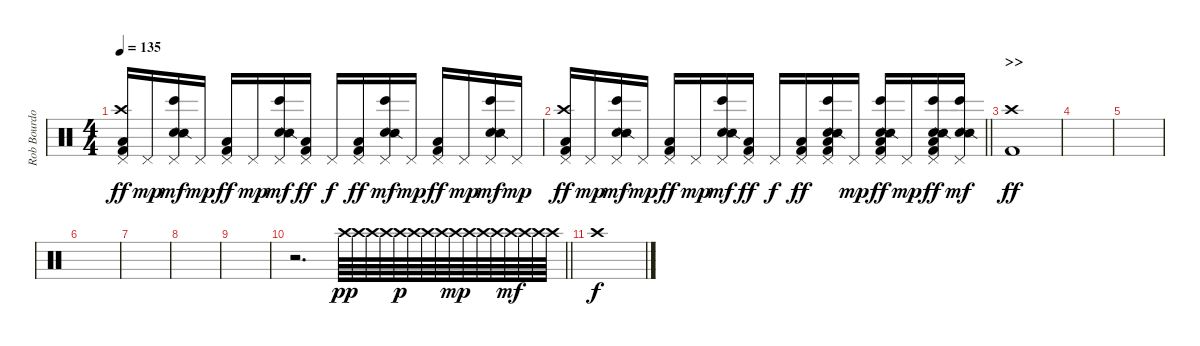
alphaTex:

\track ("Rob Bourdon - Beats & Drums" "Rob Bourdo") {instrument percussion}
\staff {score}
\articulation defaults
\ts (4 4)
\tempo 135
\clef neutral
\ks c
("Low Floor Tom (hit)" "Crash high (hit)" "Pedal Hi-Hat (hit)" "Kick (hit) 2").16{dy ff} "Pedal Hi-Hat (hit)".16{dy mp} ("Bongo High (hit)" "Electric Snare (hit)" "Snare (side stick) 2" "Pedal Hi-Hat (hit)").16{dy mf} "Pedal Hi-Hat (hit)".16{dy mp} ("Low Floor Tom (hit)" "Pedal Hi-Hat (hit)" "Kick (hit) 2").16{dy ff} "Pedal Hi-Hat (hit)".16{dy mp} ("Bongo High (hit)" "Electric Snare (hit)" "Snare (side stick) 2" "Pedal Hi-Hat (hit)").16{dy mf} ("Low Floor Tom (hit)" "Pedal Hi-Hat (hit)" "Kick (hit) 2").16{dy ff} "Pedal Hi-Hat (hit)".16{dy f} ("Low Floor Tom (hit)" "Pedal Hi-Hat (hit)" "Kick (hit) 2").16{dy ff} ("Bongo High (hit)" "Electric Snare (hit)" "Snare (side stick) 2" "Pedal Hi-Hat (hit)").16{dy mf} "Pedal Hi-Hat (hit)".16{dy mp} ("Low Floor Tom (hit)" "Pedal Hi-Hat (hit)" "Kick (hit) 2").16{dy ff} "Pedal Hi-Hat (hit)".16{dy mp} ("Bongo High (hit)" "Electric Snare (hit)" "Snare (side stick) 2" "Pedal Hi-Hat (hit)").16{dy mf} "Pedal Hi-Hat (hit)".16{dy mp} |
\barLineRight lightlight
("Low Floor Tom (hit)" "Crash high (hit)" "Pedal Hi-Hat (hit)" "Kick (hit) 2").16{dy ff} "Pedal Hi-Hat (hit)".16{dy mp} ("Bongo High (hit)" "Electric Snare (hit)" "Snare (side stick) 2" "Pedal Hi-Hat (hit)").16{dy mf} "Pedal Hi-Hat (hit)".16{dy mp} ("Low Floor Tom (hit)" "Pedal Hi-Hat (hit)" "Kick (hit) 2").16{dy ff} "Pedal Hi-Hat (hit)".16{dy mp} ("Bongo High (hit)" "Electric Snare (hit)" "Snare (side stick) 2" "Pedal Hi-Hat (hit)").16{dy mf} ("Low Floor Tom (hit)" "Pedal Hi-Hat (hit)" "Kick (hit) 2").16{dy ff} "Pedal Hi-Hat (hit)".16{dy f} ("Low Floor Tom (hit)" "Pedal Hi-Hat (hit)" "Kick (hit) 2").16{dy ff} ("Low Floor Tom (hit)" "Bongo High (hit)" "Electric Snare (hit)" "Snare (side stick) 2" "Pedal Hi-Hat (hit)" "Kick (hit) 2").16 "Pedal Hi-Hat (hit)".16{dy mp} ("Low Floor Tom (hit)" "Bongo High (hit)" "Electric Snare (hit)" "Snare (side stick) 2" "Pedal Hi-Hat (hit)" "Kick (hit) 2").16{dy ff} "Pedal Hi-Hat (hit)".16{dy mp} ("Low Floor Tom (hit)" "Bongo High (hit)" "Electric Snare (hit)" "Snare (side stick) 2" "Pedal Hi-Hat (hit)" "Kick (hit) 2").16{dy ff} ("Bongo High (hit)" "Electric Snare (hit)" "Snare (side stick) 2" "Pedal Hi-Hat (hit)").16{dy mf} |
\section ("" ">>")
("Crash high (hit)" "Kick (hit) 2").1{dy ff} |
|
|
|
|
|
|
\barLineRight lightlight
r.2{d} "Crash high (hit)".64{dy pp} "Crash high (hit)".64 "Crash high (hit)".64 "Crash high (hit)".64 "Crash high (hit)".64{dy p} "Crash high (hit)".64 "Crash high (hit)".64 "Crash high (hit)".64 "Crash high (hit)".64{dy mp} "Crash high (hit)".64 "Crash high (hit)".64 "Crash high (hit)".64 "Crash high (hit)".64{dy mf} "Crash high (hit)".64 "Crash high (hit)".64 "Crash high (hit)".64 |
\section ("" "")
"Crash high (hit)".1{dy f}
